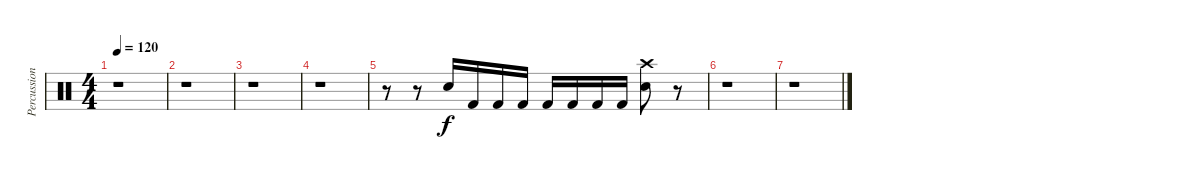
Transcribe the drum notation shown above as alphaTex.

\track ("Percussion" "Percussion") {instrument percussion}
\staff {score}
\articulation defaults
\ts (4 4)
\tempo 120
\clef neutral
\ks c
r.1{dy f} |
r.1 |
r.1 |
r.1 |
r.8 r.8 "Electric Snare (hit)".16 "Kick (hit) 2".16 "Kick (hit) 2".16 "Kick (hit) 2".16 "Kick (hit) 2".16 "Kick (hit) 2".16 "Kick (hit) 2".16 "Kick (hit) 2".16 ("Crash high (hit)" "Snare (hit) 2").8 r.8 |
r.1 |
r.1
